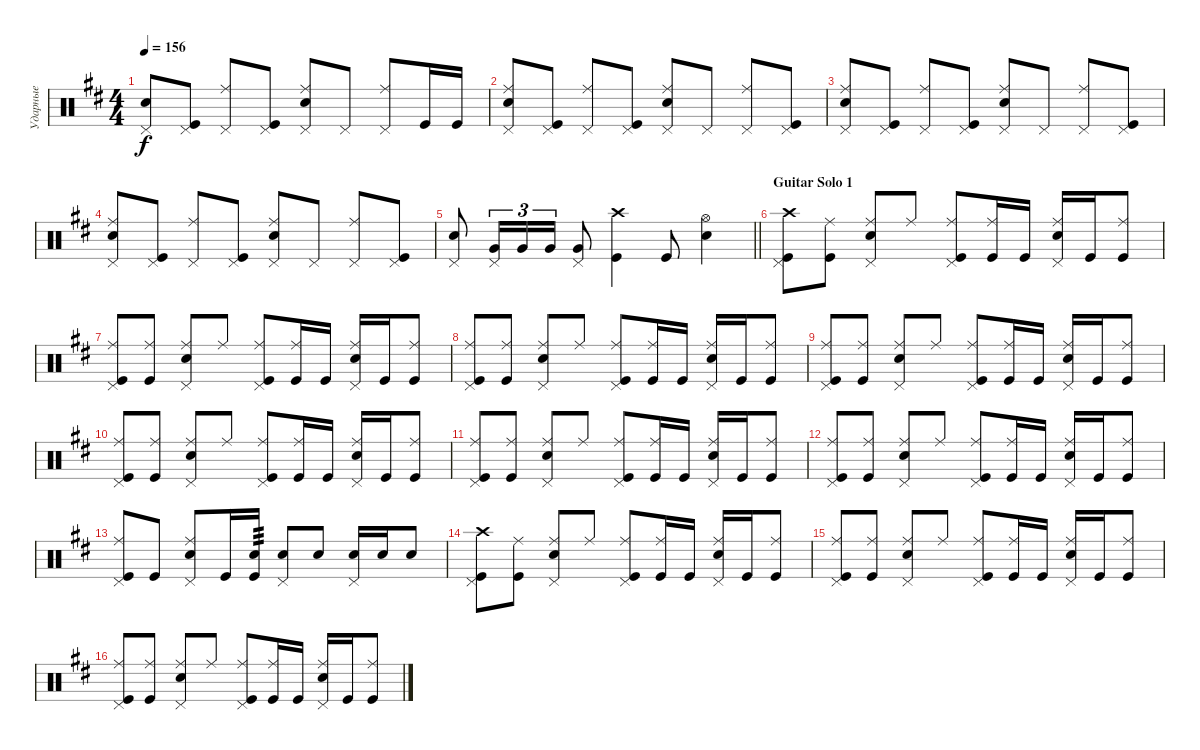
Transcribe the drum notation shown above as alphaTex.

\track ("Ударные" "Ударные") {instrument percussion}
\staff {score}
\articulation defaults
\ts (4 4)
\tempo 156
\clef neutral
\ks bminor
("Pedal Hi-Hat (hit)" "Snare (hit) 2").8{dy f} ("Kick (hit)" "Pedal Hi-Hat (hit)").8 ("Pedal Hi-Hat (hit)" "Ride (middle)").8 ("Kick (hit)" "Pedal Hi-Hat (hit)").8 ("Pedal Hi-Hat (hit)" "Snare (hit) 2" "Ride (middle)").8 "Pedal Hi-Hat (hit)".8 ("Pedal Hi-Hat (hit)" "Ride (middle)").8 "Kick (hit)".16 "Kick (hit)".16 |
("Pedal Hi-Hat (hit)" "Snare (hit) 2" "Ride (middle)").8 ("Pedal Hi-Hat (hit)" "Kick (hit)").8 ("Pedal Hi-Hat (hit)" "Ride (middle)").8 ("Pedal Hi-Hat (hit)" "Kick (hit)").8 ("Pedal Hi-Hat (hit)" "Snare (hit) 2" "Ride (middle)").8 "Pedal Hi-Hat (hit)".8 ("Pedal Hi-Hat (hit)" "Ride (middle)").8 ("Pedal Hi-Hat (hit)" "Kick (hit)").8 |
("Pedal Hi-Hat (hit)" "Snare (hit) 2" "Ride (middle)").8 ("Pedal Hi-Hat (hit)" "Kick (hit)").8 ("Pedal Hi-Hat (hit)" "Ride (middle)").8 ("Pedal Hi-Hat (hit)" "Kick (hit)").8 ("Pedal Hi-Hat (hit)" "Snare (hit) 2" "Ride (middle)").8 "Pedal Hi-Hat (hit)".8 ("Pedal Hi-Hat (hit)" "Ride (middle)").8 ("Pedal Hi-Hat (hit)" "Kick (hit)").8 |
("Pedal Hi-Hat (hit)" "Snare (hit) 2" "Ride (middle)").8 ("Pedal Hi-Hat (hit)" "Kick (hit)").8 ("Pedal Hi-Hat (hit)" "Ride (middle)").8 ("Pedal Hi-Hat (hit)" "Kick (hit)").8 ("Pedal Hi-Hat (hit)" "Snare (hit) 2" "Ride (middle)").8 "Pedal Hi-Hat (hit)".8 ("Pedal Hi-Hat (hit)" "Ride (middle)").8 ("Pedal Hi-Hat (hit)" "Kick (hit)").8 |
\barLineRight lightlight
("Snare (hit) 2" "Pedal Hi-Hat (hit)").8 ("Very Low Tom (hit)" "Pedal Hi-Hat (hit)").16{tu (3 2)} "Very Low Tom (hit)".16{tu (3 2)} "Very Low Tom (hit)".16{tu (3 2)} ("Very Low Tom (hit)" "Pedal Hi-Hat (hit)").8 ("Kick (hit)" "Crash high (hit)").4 "Kick (hit)".8 ("Snare (hit) 2" "Hi-Hat (open)").4 |
\section ("" "Guitar Solo 1")
("Kick (hit)" "Crash high (hit)" "Pedal Hi-Hat (hit)").8 ("Kick (hit)" "Ride (middle)").8 ("Snare (hit) 2" "Ride (middle)" "Pedal Hi-Hat (hit)").8 "Ride (middle)".8 ("Ride (middle)" "Kick (hit)" "Pedal Hi-Hat (hit)").8 ("Kick (hit)" "Ride (middle)").16 "Kick (hit)".16 ("Snare (hit) 2" "Ride (middle)" "Pedal Hi-Hat (hit)").16 "Kick (hit)".16 ("Ride (middle)" "Kick (hit)").8 |
("Kick (hit)" "Ride (middle)" "Pedal Hi-Hat (hit)").8 ("Kick (hit)" "Ride (middle)").8 ("Snare (hit) 2" "Ride (middle)" "Pedal Hi-Hat (hit)").8 "Ride (middle)".8 ("Ride (middle)" "Kick (hit)" "Pedal Hi-Hat (hit)").8 ("Kick (hit)" "Ride (middle)").16 "Kick (hit)".16 ("Snare (hit) 2" "Ride (middle)" "Pedal Hi-Hat (hit)").16 "Kick (hit)".16 ("Ride (middle)" "Kick (hit)").8 |
("Kick (hit)" "Ride (middle)" "Pedal Hi-Hat (hit)").8 ("Kick (hit)" "Ride (middle)").8 ("Snare (hit) 2" "Ride (middle)" "Pedal Hi-Hat (hit)").8 "Ride (middle)".8 ("Ride (middle)" "Kick (hit)" "Pedal Hi-Hat (hit)").8 ("Kick (hit)" "Ride (middle)").16 "Kick (hit)".16 ("Snare (hit) 2" "Ride (middle)" "Pedal Hi-Hat (hit)").16 "Kick (hit)".16 ("Ride (middle)" "Kick (hit)").8 |
("Kick (hit)" "Ride (middle)" "Pedal Hi-Hat (hit)").8 ("Kick (hit)" "Ride (middle)").8 ("Snare (hit) 2" "Ride (middle)" "Pedal Hi-Hat (hit)").8 "Ride (middle)".8 ("Ride (middle)" "Kick (hit)" "Pedal Hi-Hat (hit)").8 ("Kick (hit)" "Ride (middle)").16 "Kick (hit)".16 ("Snare (hit) 2" "Ride (middle)" "Pedal Hi-Hat (hit)").16 "Kick (hit)".16 ("Ride (middle)" "Kick (hit)").8 |
("Kick (hit)" "Ride (middle)" "Pedal Hi-Hat (hit)").8 ("Kick (hit)" "Ride (middle)").8 ("Snare (hit) 2" "Ride (middle)" "Pedal Hi-Hat (hit)").8 "Ride (middle)".8 ("Ride (middle)" "Kick (hit)" "Pedal Hi-Hat (hit)").8 ("Kick (hit)" "Ride (middle)").16 "Kick (hit)".16 ("Snare (hit) 2" "Ride (middle)" "Pedal Hi-Hat (hit)").16 "Kick (hit)".16 ("Ride (middle)" "Kick (hit)").8 |
("Kick (hit)" "Ride (middle)" "Pedal Hi-Hat (hit)").8 ("Kick (hit)" "Ride (middle)").8 ("Snare (hit) 2" "Ride (middle)" "Pedal Hi-Hat (hit)").8 "Ride (middle)".8 ("Ride (middle)" "Kick (hit)" "Pedal Hi-Hat (hit)").8 ("Kick (hit)" "Ride (middle)").16 "Kick (hit)".16 ("Snare (hit) 2" "Ride (middle)" "Pedal Hi-Hat (hit)").16 "Kick (hit)".16 ("Ride (middle)" "Kick (hit)").8 |
("Kick (hit)" "Ride (middle)" "Pedal Hi-Hat (hit)").8 ("Kick (hit)" "Ride (middle)").8 ("Snare (hit) 2" "Ride (middle)" "Pedal Hi-Hat (hit)").8 "Ride (middle)".8 ("Ride (middle)" "Kick (hit)" "Pedal Hi-Hat (hit)").8 ("Kick (hit)" "Ride (middle)").16 "Kick (hit)".16 ("Snare (hit) 2" "Ride (middle)" "Pedal Hi-Hat (hit)").16 "Kick (hit)".16 ("Ride (middle)" "Kick (hit)").8 |
("Kick (hit)" "Pedal Hi-Hat (hit)" "Ride (middle)").8 "Kick (hit)".8 ("Snare (hit) 2" "Pedal Hi-Hat (hit)" "Ride (middle)").8 "Kick (hit)".16 ("Kick (hit)" "Snare (hit) 2").16{tp 3} ("Snare (hit) 2" "Pedal Hi-Hat (hit)").8 "Snare (hit) 2".8 ("Pedal Hi-Hat (hit)" "Snare (hit) 2").16 "Snare (hit) 2".16 "Snare (hit) 2".8 |
("Kick (hit)" "Crash high (hit)" "Pedal Hi-Hat (hit)").8 ("Kick (hit)" "Ride (middle)").8 ("Snare (hit) 2" "Ride (middle)" "Pedal Hi-Hat (hit)").8 "Ride (middle)".8 ("Ride (middle)" "Kick (hit)" "Pedal Hi-Hat (hit)").8 ("Kick (hit)" "Ride (middle)").16 "Kick (hit)".16 ("Snare (hit) 2" "Ride (middle)" "Pedal Hi-Hat (hit)").16 "Kick (hit)".16 ("Ride (middle)" "Kick (hit)").8 |
("Kick (hit)" "Ride (middle)" "Pedal Hi-Hat (hit)").8 ("Kick (hit)" "Ride (middle)").8 ("Snare (hit) 2" "Ride (middle)" "Pedal Hi-Hat (hit)").8 "Ride (middle)".8 ("Ride (middle)" "Kick (hit)" "Pedal Hi-Hat (hit)").8 ("Kick (hit)" "Ride (middle)").16 "Kick (hit)".16 ("Snare (hit) 2" "Ride (middle)" "Pedal Hi-Hat (hit)").16 "Kick (hit)".16 ("Ride (middle)" "Kick (hit)").8 |
("Kick (hit)" "Ride (middle)" "Pedal Hi-Hat (hit)").8 ("Kick (hit)" "Ride (middle)").8 ("Snare (hit) 2" "Ride (middle)" "Pedal Hi-Hat (hit)").8 "Ride (middle)".8 ("Ride (middle)" "Kick (hit)" "Pedal Hi-Hat (hit)").8 ("Kick (hit)" "Ride (middle)").16 "Kick (hit)".16 ("Snare (hit) 2" "Ride (middle)" "Pedal Hi-Hat (hit)").16 "Kick (hit)".16 ("Ride (middle)" "Kick (hit)").8
